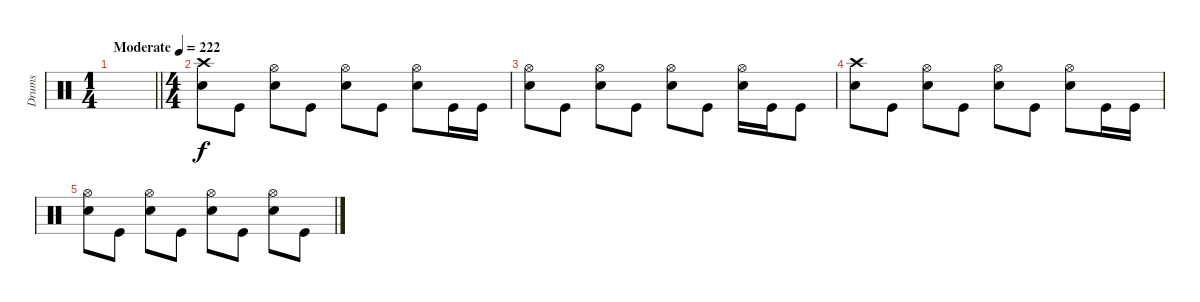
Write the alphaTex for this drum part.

\track ("Drums" "Drums") {instrument percussion}
\staff
\articulation defaults
\ts (1 4)
\tempo (222 "Moderate")
\clef neutral
\barLineRight lightlight
\ks c
|
\ts (4 4)
("Crash high (hit)" "Electric Snare (hit)").8 "Kick (hit)".8 ("Hi-Hat (open)" "Electric Snare (hit)").8 "Kick (hit)".8 ("Hi-Hat (open)" "Electric Snare (hit)").8 "Kick (hit)".8 ("Hi-Hat (open)" "Electric Snare (hit)").8 "Kick (hit)".16 "Kick (hit)".16 |
("Hi-Hat (open)" "Electric Snare (hit)").8 "Kick (hit)".8 ("Hi-Hat (open)" "Electric Snare (hit)").8 "Kick (hit)".8 ("Hi-Hat (open)" "Electric Snare (hit)").8 "Kick (hit)".8 ("Hi-Hat (open)" "Electric Snare (hit)").16 "Kick (hit)".16 "Kick (hit)".8 |
("Crash high (hit)" "Electric Snare (hit)").8 "Kick (hit)".8 ("Hi-Hat (open)" "Electric Snare (hit)").8 "Kick (hit)".8 ("Hi-Hat (open)" "Electric Snare (hit)").8 "Kick (hit)".8 ("Hi-Hat (open)" "Electric Snare (hit)").8 "Kick (hit)".16 "Kick (hit)".16 |
("Hi-Hat (open)" "Electric Snare (hit)").8 "Kick (hit)".8 ("Hi-Hat (open)" "Electric Snare (hit)").8 "Kick (hit)".8 ("Hi-Hat (open)" "Electric Snare (hit)").8 "Kick (hit)".8 ("Hi-Hat (open)" "Electric Snare (hit)").8 "Kick (hit)".8
